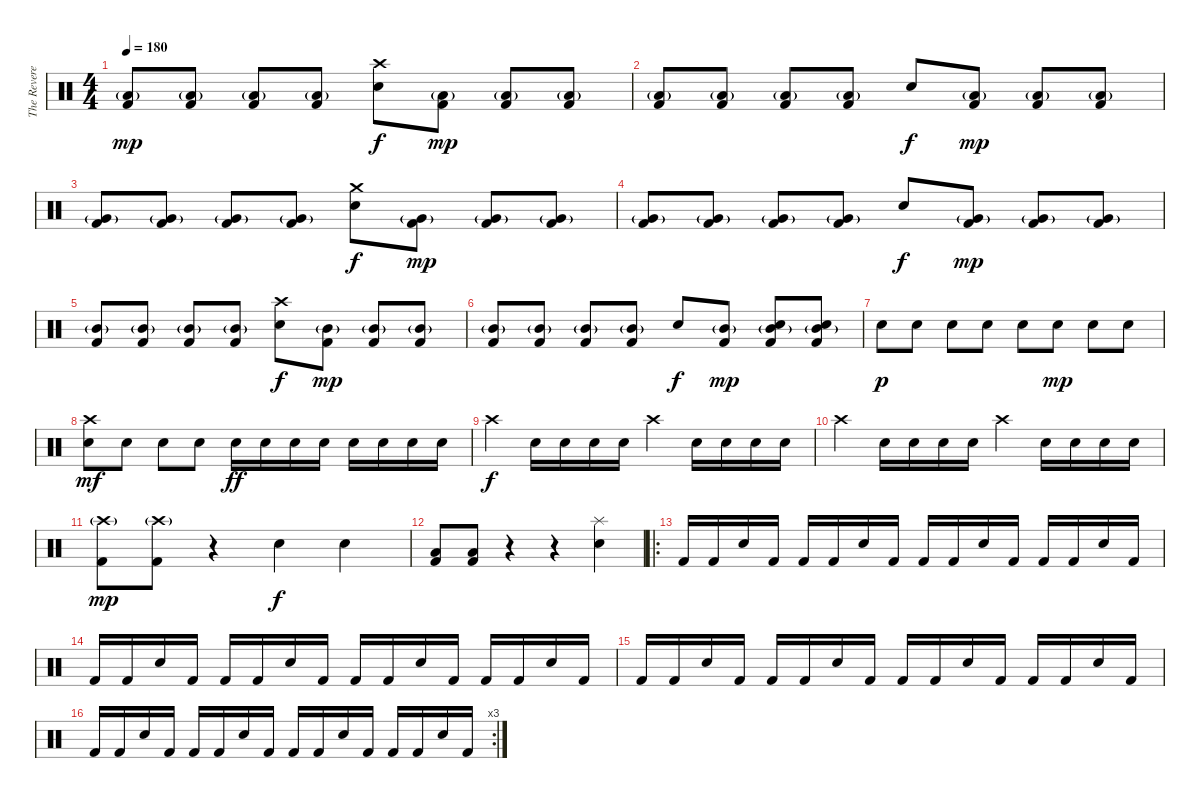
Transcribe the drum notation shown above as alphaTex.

\track ("The Reverend" "The Revere") {instrument percussion}
\staff {score}
\articulation defaults
\ts (4 4)
\tempo 180
\clef neutral
\ks c
("Low Floor Tom (hit)"{g} "Kick (hit) 2").8{dy mp} ("Low Floor Tom (hit)"{g} "Kick (hit) 2").8 ("Low Floor Tom (hit)"{g} "Kick (hit) 2").8 ("Low Floor Tom (hit)"{g} "Kick (hit) 2").8 ("Crash high (hit)" "Snare (hit) 2").8{dy f} ("Low Floor Tom (hit)"{g} "Kick (hit) 2").8{dy mp} ("Low Floor Tom (hit)"{g} "Kick (hit) 2").8 ("Low Floor Tom (hit)"{g} "Kick (hit) 2").8 |
("Low Floor Tom (hit)"{g} "Kick (hit) 2").8 ("Low Floor Tom (hit)"{g} "Kick (hit) 2").8 ("Low Floor Tom (hit)"{g} "Kick (hit) 2").8 ("Low Floor Tom (hit)"{g} "Kick (hit) 2").8 "Snare (hit) 2".8{dy f} ("Low Floor Tom (hit)"{g} "Kick (hit) 2").8{dy mp} ("Low Floor Tom (hit)"{g} "Kick (hit) 2").8 ("Low Floor Tom (hit)"{g} "Kick (hit) 2").8 |
("Very Low Tom (hit)"{g} "Kick (hit) 2").8 ("Very Low Tom (hit)"{g} "Kick (hit) 2").8 ("Very Low Tom (hit)"{g} "Kick (hit) 2").8 ("Very Low Tom (hit)"{g} "Kick (hit) 2").8 ("Crash medium (hit)" "Snare (hit) 2").8{dy f} ("Very Low Tom (hit)"{g} "Kick (hit) 2").8{dy mp} ("Very Low Tom (hit)"{g} "Kick (hit) 2").8 ("Very Low Tom (hit)"{g} "Kick (hit) 2").8 |
("Very Low Tom (hit)"{g} "Kick (hit) 2").8 ("Very Low Tom (hit)"{g} "Kick (hit) 2").8 ("Very Low Tom (hit)"{g} "Kick (hit) 2").8 ("Very Low Tom (hit)"{g} "Kick (hit) 2").8 "Snare (hit) 2".8{dy f} ("Very Low Tom (hit)"{g} "Kick (hit) 2").8{dy mp} ("Very Low Tom (hit)"{g} "Kick (hit) 2").8 ("Very Low Tom (hit)"{g} "Kick (hit) 2").8 |
("Mid Tom (hit)"{g} "Kick (hit) 2").8 ("Mid Tom (hit)"{g} "Kick (hit) 2").8 ("Mid Tom (hit)"{g} "Kick (hit) 2").8 ("Mid Tom (hit)"{g} "Kick (hit) 2").8 ("Crash high (hit)" "Snare (hit) 2").8{dy f} ("Mid Tom (hit)"{g} "Kick (hit) 2").8{dy mp} ("Mid Tom (hit)"{g} "Kick (hit) 2").8 ("Mid Tom (hit)"{g} "Kick (hit) 2").8 |
("Mid Tom (hit)"{g} "Kick (hit) 2").8 ("Mid Tom (hit)"{g} "Kick (hit) 2").8 ("Mid Tom (hit)"{g} "Kick (hit) 2").8 ("Mid Tom (hit)"{g} "Kick (hit) 2").8 "Snare (hit) 2".8{dy f} ("Mid Tom (hit)"{g} "Kick (hit) 2").8{dy mp} ("Snare (hit) 2" "Mid Tom (hit)"{g} "Kick (hit) 2").8 ("Snare (hit) 2" "Mid Tom (hit)"{g} "Kick (hit) 2").8 |
"Snare (hit) 2".8{dy p} "Snare (hit) 2".8 "Snare (hit) 2".8 "Snare (hit) 2".8 "Snare (hit) 2".8 "Snare (hit) 2".8{dy mp} "Snare (hit) 2".8 "Snare (hit) 2".8 |
("Crash high (hit)" "Snare (hit) 2").8{dy mf} "Snare (hit) 2".8 "Snare (hit) 2".8 "Snare (hit) 2".8 "Snare (hit) 2".16{dy ff} "Snare (hit) 2".16 "Snare (hit) 2".16 "Snare (hit) 2".16 "Snare (hit) 2".16 "Snare (hit) 2".16 "Snare (hit) 2".16 "Snare (hit) 2".16 |
"Crash high (hit)".4{dy f} "Snare (hit) 2".16 "Snare (hit) 2".16 "Snare (hit) 2".16 "Snare (hit) 2".16 "Crash high (hit)".4 "Snare (hit) 2".16 "Snare (hit) 2".16 "Snare (hit) 2".16 "Snare (hit) 2".16 |
"Crash high (hit)".4 "Snare (hit) 2".16 "Snare (hit) 2".16 "Snare (hit) 2".16 "Snare (hit) 2".16 "Crash high (hit)".4 "Snare (hit) 2".16 "Snare (hit) 2".16 "Snare (hit) 2".16 "Snare (hit) 2".16 |
("Crash high (hit)"{g} "Kick (hit) 2").8{dy mp} ("Crash high (hit)"{g} "Kick (hit) 2").8 r.4 "Snare (hit) 2".4{dy f} "Snare (hit) 2".4 |
("Low Floor Tom (hit)" "Kick (hit) 2").8 ("Low Floor Tom (hit)" "Kick (hit) 2").8 r.4 r.4 ("Splash (hit)" "Snare (hit) 2").4 |
\ro "Kick (hit) 2".16 "Kick (hit) 2".16 "Snare (hit) 2".16 "Kick (hit) 2".16 "Kick (hit) 2".16 "Kick (hit) 2".16 "Snare (hit) 2".16 "Kick (hit) 2".16 "Kick (hit) 2".16 "Kick (hit) 2".16 "Snare (hit) 2".16 "Kick (hit) 2".16 "Kick (hit) 2".16 "Kick (hit) 2".16 "Snare (hit) 2".16 "Kick (hit) 2".16
|
"Kick (hit) 2".16 "Kick (hit) 2".16 "Snare (hit) 2".16 "Kick (hit) 2".16 "Kick (hit) 2".16 "Kick (hit) 2".16 "Snare (hit) 2".16 "Kick (hit) 2".16 "Kick (hit) 2".16 "Kick (hit) 2".16 "Snare (hit) 2".16 "Kick (hit) 2".16 "Kick (hit) 2".16 "Kick (hit) 2".16 "Snare (hit) 2".16 "Kick (hit) 2".16 |
"Kick (hit) 2".16 "Kick (hit) 2".16 "Snare (hit) 2".16 "Kick (hit) 2".16 "Kick (hit) 2".16 "Kick (hit) 2".16 "Snare (hit) 2".16 "Kick (hit) 2".16 "Kick (hit) 2".16 "Kick (hit) 2".16 "Snare (hit) 2".16 "Kick (hit) 2".16 "Kick (hit) 2".16 "Kick (hit) 2".16 "Snare (hit) 2".16 "Kick (hit) 2".16 |
\rc 3 "Kick (hit) 2".16 "Kick (hit) 2".16 "Snare (hit) 2".16 "Kick (hit) 2".16 "Kick (hit) 2".16 "Kick (hit) 2".16 "Snare (hit) 2".16 "Kick (hit) 2".16 "Kick (hit) 2".16 "Kick (hit) 2".16 "Snare (hit) 2".16 "Kick (hit) 2".16 "Kick (hit) 2".16 "Kick (hit) 2".16 "Snare (hit) 2".16 "Kick (hit) 2".16
